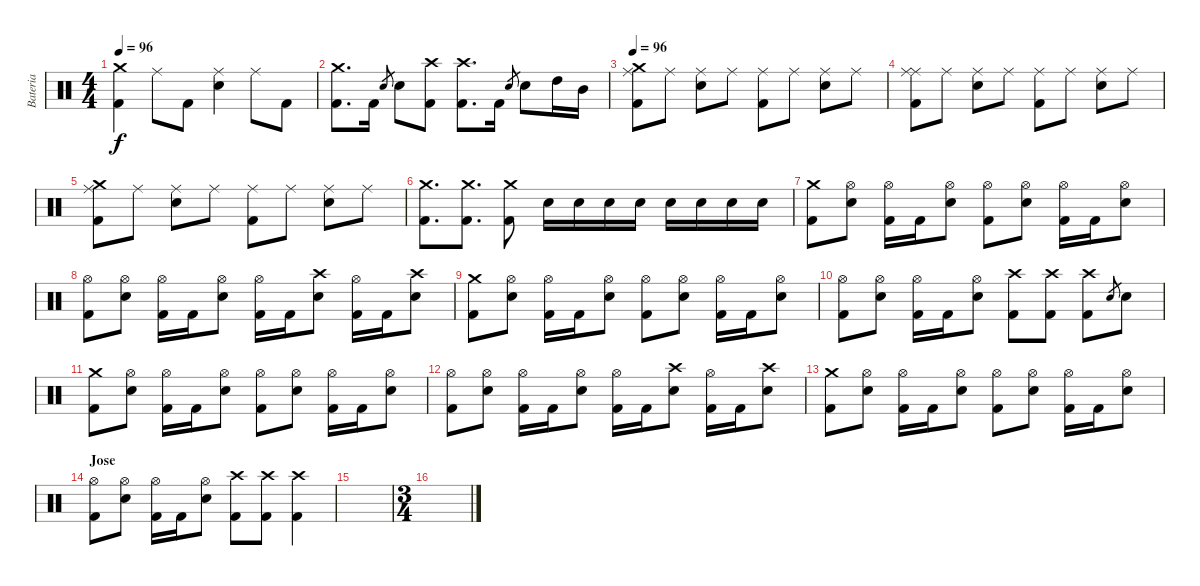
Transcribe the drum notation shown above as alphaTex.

\track ("Bateria" "Bateria") {instrument percussion}
\staff {score}
\articulation defaults
\ts (4 4)
\tempo 96
\clef neutral
\ks c
("Crash medium (hit)" "Kick (hit) 2").4{dy f} "Ride (middle)".8 "Kick (hit) 2".8 ("Ride (middle)" "Snare (hit) 2").4 "Ride (middle)".8 "Kick (hit) 2".8 |
("Crash medium (hit)" "Kick (hit) 2").8{d} "Kick (hit) 2".16 "Snare (hit) 2".8{gr} "Snare (hit) 2".8 ("Kick (hit) 2" "Crash high (hit)").8 ("Kick (hit) 2" "Crash high (hit)").8{d} "Kick (hit) 2".16 "Snare (hit) 2".8{gr} "Snare (hit) 2".8 "High Tom (hit)".16 "Mid Tom (hit)".16 |
\tempo 96
("Crash medium (hit)" "Kick (hit) 2" "Ride (middle)").8 "Ride (middle)".8 ("Ride (middle)" "Snare (hit) 2").8 "Ride (middle)".8 ("Ride (middle)" "Kick (hit) 2").8 "Ride (middle)".8 ("Ride (middle)" "Snare (hit) 2").8 "Ride (middle)".8 |
("Ride (middle)" "Kick (hit) 2" "Ride (middle)").8 "Ride (middle)".8 ("Ride (middle)" "Snare (hit) 2").8 "Ride (middle)".8 ("Ride (middle)" "Kick (hit) 2").8 "Ride (middle)".8 ("Ride (middle)" "Snare (hit) 2").8 "Ride (middle)".8 |
("Crash medium (hit)" "Kick (hit) 2" "Ride (middle)").8 "Ride (middle)".8 ("Ride (middle)" "Snare (hit) 2").8 "Ride (middle)".8 ("Ride (middle)" "Kick (hit) 2").8 "Ride (middle)".8 ("Ride (middle)" "Snare (hit) 2").8 "Ride (middle)".8 |
("Kick (hit) 2" "Crash medium (hit)").8{d} ("Kick (hit) 2" "Crash medium (hit)").8{d} ("Kick (hit) 2" "Crash medium (hit)").8 "Snare (hit) 2"{tr (38 64)}.16 "Snare (hit) 2".16 "Snare (hit) 2".16 "Snare (hit) 2".16 "Snare (hit) 2".16 "Snare (hit) 2".16 "Snare (hit) 2".16 "Snare (hit) 2".16 |
("Crash medium (hit)" "Kick (hit) 2").8 ("Hi-Hat (open)" "Snare (hit) 2").8 ("Hi-Hat (open)" "Kick (hit) 2").16 "Kick (hit) 2".16 ("Hi-Hat (open)" "Snare (hit) 2").8 ("Hi-Hat (open)" "Kick (hit) 2").8 ("Hi-Hat (open)" "Snare (hit) 2").8 ("Hi-Hat (open)" "Kick (hit) 2").16 "Kick (hit) 2".16 ("Hi-Hat (open)" "Snare (hit) 2").8 |
("Hi-Hat (open)" "Kick (hit) 2").8 ("Hi-Hat (open)" "Snare (hit) 2").8 ("Hi-Hat (open)" "Kick (hit) 2").16 "Kick (hit) 2".16 ("Hi-Hat (open)" "Snare (hit) 2").8 ("Hi-Hat (open)" "Kick (hit) 2").16 "Kick (hit) 2".16 ("Crash high (hit)" "Snare (hit) 2").8 ("Hi-Hat (open)" "Kick (hit) 2").16 "Kick (hit) 2".16 ("Crash high (hit)" "Snare (hit) 2").8 |
("Crash medium (hit)" "Kick (hit) 2").8 ("Hi-Hat (open)" "Snare (hit) 2").8 ("Hi-Hat (open)" "Kick (hit) 2").16 "Kick (hit) 2".16 ("Hi-Hat (open)" "Snare (hit) 2").8 ("Hi-Hat (open)" "Kick (hit) 2").8 ("Hi-Hat (open)" "Snare (hit) 2").8 ("Hi-Hat (open)" "Kick (hit) 2").16 "Kick (hit) 2".16 ("Hi-Hat (open)" "Snare (hit) 2").8 |
("Hi-Hat (open)" "Kick (hit) 2").8 ("Hi-Hat (open)" "Snare (hit) 2").8 ("Hi-Hat (open)" "Kick (hit) 2").16 "Kick (hit) 2".16 ("Hi-Hat (open)" "Snare (hit) 2").8 ("Crash high (hit)" "Kick (hit) 2").8 ("Crash high (hit)" "Kick (hit) 2").8 ("Crash high (hit)" "Kick (hit) 2").8 "Snare (hit) 2".8{gr} "Snare (hit) 2".8 |
("Crash medium (hit)" "Kick (hit) 2").8 ("Hi-Hat (open)" "Snare (hit) 2").8 ("Hi-Hat (open)" "Kick (hit) 2").16 "Kick (hit) 2".16 ("Hi-Hat (open)" "Snare (hit) 2").8 ("Hi-Hat (open)" "Kick (hit) 2").8 ("Hi-Hat (open)" "Snare (hit) 2").8 ("Hi-Hat (open)" "Kick (hit) 2").16 "Kick (hit) 2".16 ("Hi-Hat (open)" "Snare (hit) 2").8 |
("Hi-Hat (open)" "Kick (hit) 2").8 ("Hi-Hat (open)" "Snare (hit) 2").8 ("Hi-Hat (open)" "Kick (hit) 2").16 "Kick (hit) 2".16 ("Hi-Hat (open)" "Snare (hit) 2").8 ("Hi-Hat (open)" "Kick (hit) 2").16 "Kick (hit) 2".16 ("Crash high (hit)" "Snare (hit) 2").8 ("Hi-Hat (open)" "Kick (hit) 2").16 "Kick (hit) 2".16 ("Crash high (hit)" "Snare (hit) 2").8 |
("Crash medium (hit)" "Kick (hit) 2").8 ("Hi-Hat (open)" "Snare (hit) 2").8 ("Hi-Hat (open)" "Kick (hit) 2").16 "Kick (hit) 2".16 ("Hi-Hat (open)" "Snare (hit) 2").8 ("Hi-Hat (open)" "Kick (hit) 2").8 ("Hi-Hat (open)" "Snare (hit) 2").8 ("Hi-Hat (open)" "Kick (hit) 2").16 "Kick (hit) 2".16 ("Hi-Hat (open)" "Snare (hit) 2").8 |
\section ("" "Jose")
("Hi-Hat (open)" "Kick (hit) 2").8 ("Hi-Hat (open)" "Snare (hit) 2").8 ("Hi-Hat (open)" "Kick (hit) 2").16 "Kick (hit) 2".16 ("Hi-Hat (open)" "Snare (hit) 2").8 ("Crash high (hit)" "Kick (hit) 2").8 ("Crash high (hit)" "Kick (hit) 2").8 ("Crash high (hit)" "Kick (hit) 2").4 |
|
\ts (3 4)
